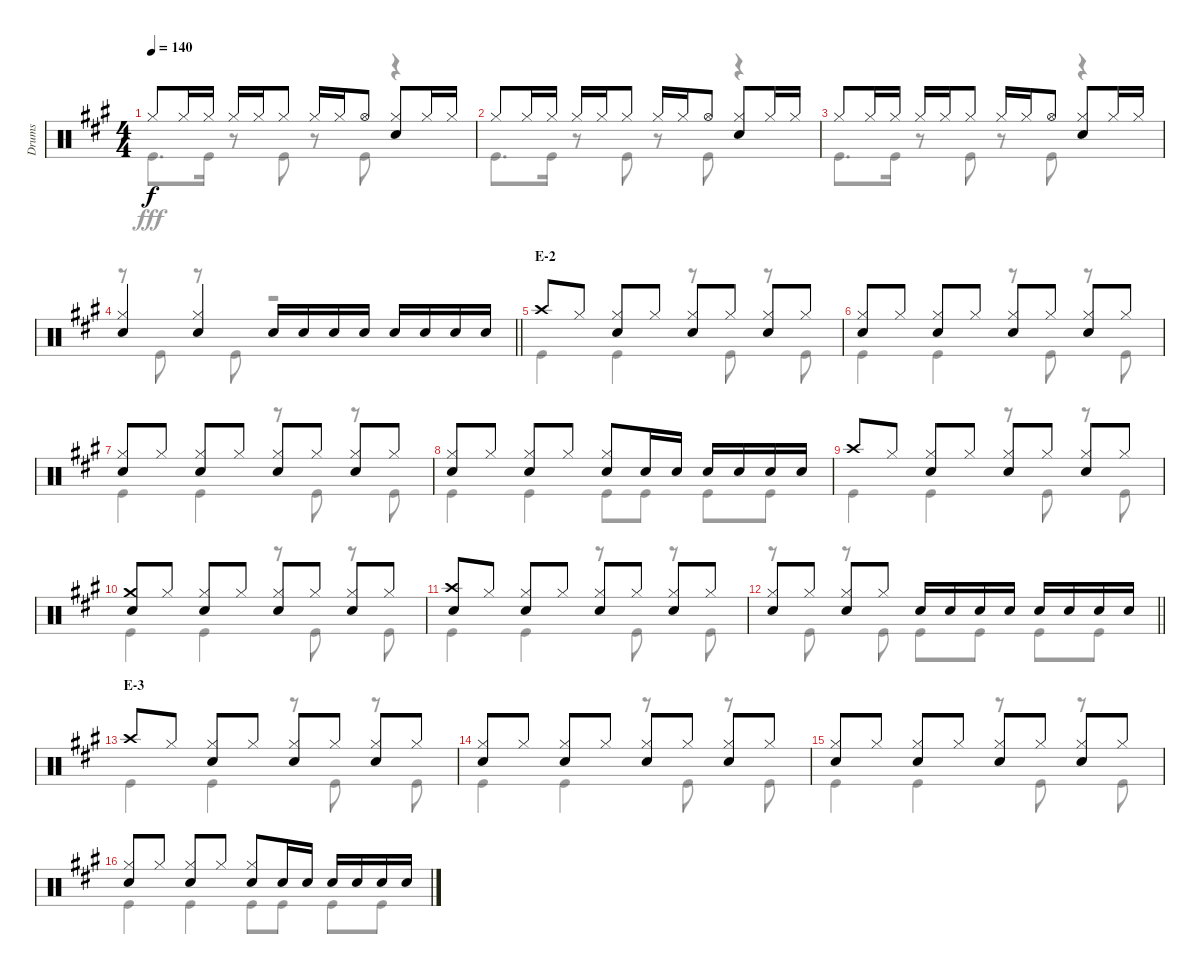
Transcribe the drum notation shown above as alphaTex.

\track ("Drums" "Drums") {instrument percussion}
\staff {score}
\articulation defaults
\voice
\ts (4 4)
\tempo 140
\clef neutral
\ks a "Hi-Hat (closed)".8{dy f} "Hi-Hat (closed)".16 "Hi-Hat (closed)".16 "Hi-Hat (closed)".16 "Hi-Hat (closed)".16 "Hi-Hat (closed)".8 "Hi-Hat (closed)".16 "Hi-Hat (closed)".16 "Hi-Hat (open)".8
("Hi-Hat (closed)" "Snare (hit) 2").8 "Hi-Hat (closed)".16 "Hi-Hat (closed)".16 |
"Hi-Hat (closed)".8 "Hi-Hat (closed)".16 "Hi-Hat (closed)".16 "Hi-Hat (closed)".16 "Hi-Hat (closed)".16 "Hi-Hat (closed)".8 "Hi-Hat (closed)".16 "Hi-Hat (closed)".16 "Hi-Hat (open)".8 ("Hi-Hat (closed)" "Snare (hit) 2").8 "Hi-Hat (closed)".16 "Hi-Hat (closed)".16 |
"Hi-Hat (closed)".8 "Hi-Hat (closed)".16 "Hi-Hat (closed)".16 "Hi-Hat (closed)".16 "Hi-Hat (closed)".16 "Hi-Hat (closed)".8 "Hi-Hat (closed)".16 "Hi-Hat (closed)".16 "Hi-Hat (open)".8 ("Hi-Hat (closed)" "Snare (hit) 2").8 "Hi-Hat (closed)".16 "Hi-Hat (closed)".16 |
\barLineRight lightlight
("Hi-Hat (closed)" "Snare (hit) 2").4 ("Hi-Hat (closed)" "Snare (hit) 2").4 "Snare (hit) 2".16 "Snare (hit) 2".16 "Snare (hit) 2".16 "Snare (hit) 2".16 "Snare (hit) 2".16 "Snare (hit) 2".16 "Snare (hit) 2".16 "Snare (hit) 2".16 |
\section ("" "E-2")
"Crash high (hit)".8 "Hi-Hat (closed)".8 ("Hi-Hat (closed)" "Snare (hit) 2").8 "Hi-Hat (closed)".8 ("Hi-Hat (closed)" "Snare (hit) 2").8 "Hi-Hat (closed)".8 ("Hi-Hat (closed)" "Snare (hit) 2").8 "Hi-Hat (closed)".8 |
("Hi-Hat (closed)" "Snare (hit) 2").8 "Hi-Hat (closed)".8 ("Hi-Hat (closed)" "Snare (hit) 2").8 "Hi-Hat (closed)".8 ("Hi-Hat (closed)" "Snare (hit) 2").8 "Hi-Hat (closed)".8 ("Hi-Hat (closed)" "Snare (hit) 2").8 "Hi-Hat (closed)".8 |
("Hi-Hat (closed)" "Snare (hit) 2").8 "Hi-Hat (closed)".8 ("Hi-Hat (closed)" "Snare (hit) 2").8 "Hi-Hat (closed)".8 ("Hi-Hat (closed)" "Snare (hit) 2").8 "Hi-Hat (closed)".8 ("Hi-Hat (closed)" "Snare (hit) 2").8 "Hi-Hat (closed)".8 |
("Hi-Hat (closed)" "Snare (hit) 2").8 "Hi-Hat (closed)".8 ("Hi-Hat (closed)" "Snare (hit) 2").8 "Hi-Hat (closed)".8 ("Hi-Hat (closed)" "Snare (hit) 2").8 "Snare (hit) 2".16 "Snare (hit) 2".16 "Snare (hit) 2".16 "Snare (hit) 2".16 "Snare (hit) 2".16 "Snare (hit) 2".16 |
"Crash high (hit)".8 "Hi-Hat (closed)".8 ("Hi-Hat (closed)" "Snare (hit) 2").8 "Hi-Hat (closed)".8 ("Hi-Hat (closed)" "Snare (hit) 2").8 "Hi-Hat (closed)".8 ("Hi-Hat (closed)" "Snare (hit) 2").8 "Hi-Hat (closed)".8 |
("Crash medium (hit)" "Snare (hit) 2").8 "Hi-Hat (closed)".8 ("Hi-Hat (closed)" "Snare (hit) 2").8 "Hi-Hat (closed)".8 ("Hi-Hat (closed)" "Snare (hit) 2").8 "Hi-Hat (closed)".8 ("Hi-Hat (closed)" "Snare (hit) 2").8 "Hi-Hat (closed)".8 |
("Crash high (hit)" "Snare (hit) 2").8 "Hi-Hat (closed)".8 ("Hi-Hat (closed)" "Snare (hit) 2").8 "Hi-Hat (closed)".8 ("Hi-Hat (closed)" "Snare (hit) 2").8 "Hi-Hat (closed)".8 ("Hi-Hat (closed)" "Snare (hit) 2").8 "Hi-Hat (closed)".8 |
\barLineRight lightlight
("Hi-Hat (closed)" "Snare (hit) 2").8 "Hi-Hat (closed)".8 ("Hi-Hat (closed)" "Snare (hit) 2").8 "Hi-Hat (closed)".8 "Snare (hit) 2".16 "Snare (hit) 2".16 "Snare (hit) 2".16 "Snare (hit) 2".16 "Snare (hit) 2".16 "Snare (hit) 2".16 "Snare (hit) 2".16 "Snare (hit) 2".16 |
\section ("" "E-3")
"Crash high (hit)".8 "Hi-Hat (closed)".8 ("Hi-Hat (closed)" "Snare (hit) 2").8 "Hi-Hat (closed)".8 ("Hi-Hat (closed)" "Snare (hit) 2").8 "Hi-Hat (closed)".8 ("Hi-Hat (closed)" "Snare (hit) 2").8 "Hi-Hat (closed)".8 |
("Hi-Hat (closed)" "Snare (hit) 2").8 "Hi-Hat (closed)".8 ("Hi-Hat (closed)" "Snare (hit) 2").8 "Hi-Hat (closed)".8 ("Hi-Hat (closed)" "Snare (hit) 2").8 "Hi-Hat (closed)".8 ("Hi-Hat (closed)" "Snare (hit) 2").8 "Hi-Hat (closed)".8 |
("Hi-Hat (closed)" "Snare (hit) 2").8 "Hi-Hat (closed)".8 ("Hi-Hat (closed)" "Snare (hit) 2").8 "Hi-Hat (closed)".8 ("Hi-Hat (closed)" "Snare (hit) 2").8 "Hi-Hat (closed)".8 ("Hi-Hat (closed)" "Snare (hit) 2").8 "Hi-Hat (closed)".8 |
("Hi-Hat (closed)" "Snare (hit) 2").8 "Hi-Hat (closed)".8 ("Hi-Hat (closed)" "Snare (hit) 2").8 "Hi-Hat (closed)".8 ("Hi-Hat (closed)" "Snare (hit) 2").8 "Snare (hit) 2".16 "Snare (hit) 2".16 "Snare (hit) 2".16 "Snare (hit) 2".16 "Snare (hit) 2".16 "Snare (hit) 2".16
\voice
\clef neutral
\ottava regular
\simile none
\ks a "Kick (hit)".8{d dy fff} "Kick (hit)".16
r.8 "Kick (hit)".8 r.8 "Kick (hit)".8 r.4 |
"Kick (hit)".8{d} "Kick (hit)".16 r.8 "Kick (hit)".8 r.8 "Kick (hit)".8 r.4 |
"Kick (hit)".8{d} "Kick (hit)".16 r.8 "Kick (hit)".8 r.8 "Kick (hit)".8 r.4 |
\barLineRight lightlight
r.8 "Kick (hit)".8 r.8 "Kick (hit)".8 r.2 |
"Kick (hit)".4 "Kick (hit)".4 r.8 "Kick (hit)".8 r.8 "Kick (hit)".8 |
"Kick (hit)".4 "Kick (hit)".4 r.8 "Kick (hit)".8 r.8 "Kick (hit)".8 |
"Kick (hit)".4 "Kick (hit)".4 r.8 "Kick (hit)".8 r.8 "Kick (hit)".8 |
"Kick (hit)".4 "Kick (hit)".4 "Kick (hit)".8 "Kick (hit)".8 "Kick (hit)".8 "Kick (hit)".8 |
"Kick (hit)".4 "Kick (hit)".4 r.8 "Kick (hit)".8 r.8 "Kick (hit)".8 |
"Kick (hit)".4 "Kick (hit)".4 r.8 "Kick (hit)".8 r.8 "Kick (hit)".8 |
"Kick (hit)".4 "Kick (hit)".4 r.8 "Kick (hit)".8 r.8 "Kick (hit)".8 |
\barLineRight lightlight
r.8 "Kick (hit)".8 r.8 "Kick (hit)".8 "Kick (hit)".8 "Kick (hit)".8 "Kick (hit)".8 "Kick (hit)".8 |
"Kick (hit)".4 "Kick (hit)".4 r.8 "Kick (hit)".8 r.8 "Kick (hit)".8 |
"Kick (hit)".4 "Kick (hit)".4 r.8 "Kick (hit)".8 r.8 "Kick (hit)".8 |
"Kick (hit)".4 "Kick (hit)".4 r.8 "Kick (hit)".8 r.8 "Kick (hit)".8 |
"Kick (hit)".4 "Kick (hit)".4 "Kick (hit)".8 "Kick (hit)".8 "Kick (hit)".8 "Kick (hit)".8
